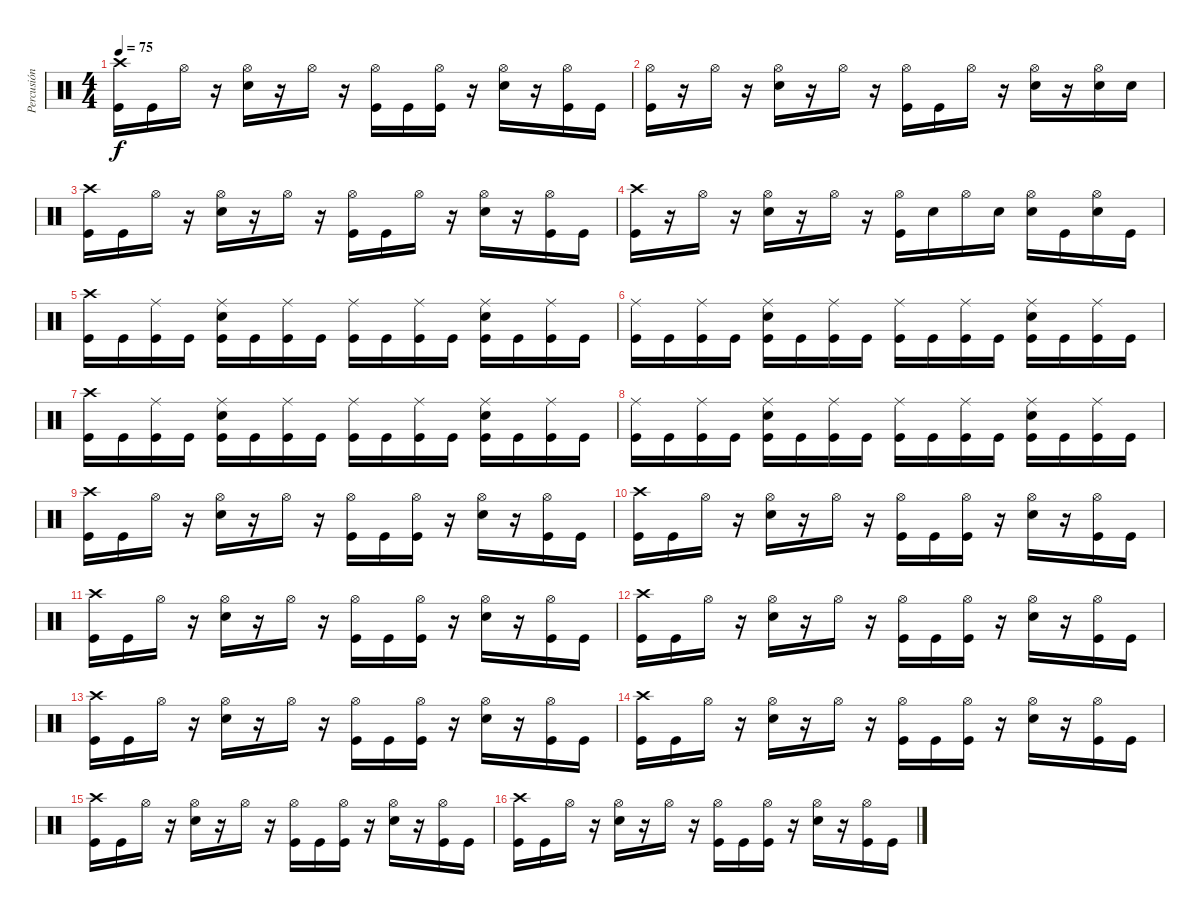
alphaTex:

\track ("Percusión" "Percusión") {instrument percussion}
\staff {score}
\articulation defaults
\ts (4 4)
\tempo 75
\clef neutral
\ks c
("Kick (hit)" "Crash high (hit)").16{dy f} "Kick (hit)".16 "Hi-Hat (open)".16 r.16 ("Snare (hit) 2" "Hi-Hat (open)").16 r.16 "Hi-Hat (open)".16 r.16 ("Kick (hit)" "Hi-Hat (open)").16 "Kick (hit)".16 ("Kick (hit)" "Hi-Hat (open)").16 r.16 ("Snare (hit) 2" "Hi-Hat (open)").16 r.16 ("Kick (hit)" "Hi-Hat (open)").16 "Kick (hit)".16 |
("Kick (hit)" "Hi-Hat (open)").16 r.16 "Hi-Hat (open)".16 r.16 ("Snare (hit) 2" "Hi-Hat (open)").16 r.16 "Hi-Hat (open)".16 r.16 ("Kick (hit)" "Hi-Hat (open)").16 "Kick (hit)".16 "Hi-Hat (open)".16 r.16 ("Snare (hit) 2" "Hi-Hat (open)").16 r.16 ("Snare (hit) 2" "Hi-Hat (open)").16 "Snare (hit) 2".16 |
("Kick (hit)" "Crash high (hit)").16 "Kick (hit)".16 "Hi-Hat (open)".16 r.16 ("Snare (hit) 2" "Hi-Hat (open)").16 r.16 "Hi-Hat (open)".16 r.16 ("Kick (hit)" "Hi-Hat (open)").16 "Kick (hit)".16 "Hi-Hat (open)".16 r.16 ("Snare (hit) 2" "Hi-Hat (open)").16 r.16 ("Kick (hit)" "Hi-Hat (open)").16 "Kick (hit)".16 |
("Kick (hit)" "Crash high (hit)").16 r.16 "Hi-Hat (open)".16 r.16 ("Snare (hit) 2" "Hi-Hat (open)").16 r.16 "Hi-Hat (open)".16 r.16 ("Kick (hit)" "Hi-Hat (open)").16 "Snare (hit) 2".16 "Hi-Hat (open)".16 "Snare (hit) 2".16 ("Snare (hit) 2" "Hi-Hat (open)").16 "Kick (hit)".16 ("Snare (hit) 2" "Hi-Hat (open)").16 "Kick (hit)".16 |
("Kick (hit)" "Crash high (hit)").16 "Kick (hit)".16 ("Kick (hit)" "Ride (middle)").16 "Kick (hit)".16 ("Kick (hit)" "Snare (hit) 2" "Ride (middle)").16 "Kick (hit)".16 ("Kick (hit)" "Ride (middle)").16 "Kick (hit)".16 ("Kick (hit)" "Ride (middle)").16 "Kick (hit)".16 ("Kick (hit)" "Ride (middle)").16 "Kick (hit)".16 ("Kick (hit)" "Snare (hit) 2" "Ride (middle)").16 "Kick (hit)".16 ("Kick (hit)" "Ride (middle)").16 "Kick (hit)".16 |
("Kick (hit)" "Ride (middle)").16 "Kick (hit)".16 ("Kick (hit)" "Ride (middle)").16 "Kick (hit)".16 ("Kick (hit)" "Snare (hit) 2" "Ride (middle)").16 "Kick (hit)".16 ("Kick (hit)" "Ride (middle)").16 "Kick (hit)".16 ("Kick (hit)" "Ride (middle)").16 "Kick (hit)".16 ("Kick (hit)" "Ride (middle)").16 "Kick (hit)".16 ("Kick (hit)" "Snare (hit) 2" "Ride (middle)").16 "Kick (hit)".16 ("Kick (hit)" "Ride (middle)").16 "Kick (hit)".16 |
("Kick (hit)" "Crash high (hit)").16 "Kick (hit)".16 ("Kick (hit)" "Ride (middle)").16 "Kick (hit)".16 ("Kick (hit)" "Snare (hit) 2" "Ride (middle)").16 "Kick (hit)".16 ("Kick (hit)" "Ride (middle)").16 "Kick (hit)".16 ("Kick (hit)" "Ride (middle)").16 "Kick (hit)".16 ("Kick (hit)" "Ride (middle)").16 "Kick (hit)".16 ("Kick (hit)" "Snare (hit) 2" "Ride (middle)").16 "Kick (hit)".16 ("Kick (hit)" "Ride (middle)").16 "Kick (hit)".16 |
("Kick (hit)" "Ride (middle)").16 "Kick (hit)".16 ("Kick (hit)" "Ride (middle)").16 "Kick (hit)".16 ("Kick (hit)" "Snare (hit) 2" "Ride (middle)").16 "Kick (hit)".16 ("Kick (hit)" "Ride (middle)").16 "Kick (hit)".16 ("Kick (hit)" "Ride (middle)").16 "Kick (hit)".16 ("Kick (hit)" "Ride (middle)").16 "Kick (hit)".16 ("Kick (hit)" "Snare (hit) 2" "Ride (middle)").16 "Kick (hit)".16 ("Kick (hit)" "Ride (middle)").16 "Kick (hit)".16 |
("Kick (hit)" "Crash high (hit)").16 "Kick (hit)".16 "Hi-Hat (open)".16 r.16 ("Snare (hit) 2" "Hi-Hat (open)").16 r.16 "Hi-Hat (open)".16 r.16 ("Kick (hit)" "Hi-Hat (open)").16 "Kick (hit)".16 ("Kick (hit)" "Hi-Hat (open)").16 r.16 ("Snare (hit) 2" "Hi-Hat (open)").16 r.16 ("Kick (hit)" "Hi-Hat (open)").16 "Kick (hit)".16 |
("Kick (hit)" "Crash high (hit)").16 "Kick (hit)".16 "Hi-Hat (open)".16 r.16 ("Snare (hit) 2" "Hi-Hat (open)").16 r.16 "Hi-Hat (open)".16 r.16 ("Kick (hit)" "Hi-Hat (open)").16 "Kick (hit)".16 ("Kick (hit)" "Hi-Hat (open)").16 r.16 ("Snare (hit) 2" "Hi-Hat (open)").16 r.16 ("Kick (hit)" "Hi-Hat (open)").16 "Kick (hit)".16 |
("Kick (hit)" "Crash high (hit)").16 "Kick (hit)".16 "Hi-Hat (open)".16 r.16 ("Snare (hit) 2" "Hi-Hat (open)").16 r.16 "Hi-Hat (open)".16 r.16 ("Kick (hit)" "Hi-Hat (open)").16 "Kick (hit)".16 ("Kick (hit)" "Hi-Hat (open)").16 r.16 ("Snare (hit) 2" "Hi-Hat (open)").16 r.16 ("Kick (hit)" "Hi-Hat (open)").16 "Kick (hit)".16 |
("Kick (hit)" "Crash high (hit)").16 "Kick (hit)".16 "Hi-Hat (open)".16 r.16 ("Snare (hit) 2" "Hi-Hat (open)").16 r.16 "Hi-Hat (open)".16 r.16 ("Kick (hit)" "Hi-Hat (open)").16 "Kick (hit)".16 ("Kick (hit)" "Hi-Hat (open)").16 r.16 ("Snare (hit) 2" "Hi-Hat (open)").16 r.16 ("Kick (hit)" "Hi-Hat (open)").16 "Kick (hit)".16 |
("Kick (hit)" "Crash high (hit)").16 "Kick (hit)".16 "Hi-Hat (open)".16 r.16 ("Snare (hit) 2" "Hi-Hat (open)").16 r.16 "Hi-Hat (open)".16 r.16 ("Kick (hit)" "Hi-Hat (open)").16 "Kick (hit)".16 ("Kick (hit)" "Hi-Hat (open)").16 r.16 ("Snare (hit) 2" "Hi-Hat (open)").16 r.16 ("Kick (hit)" "Hi-Hat (open)").16 "Kick (hit)".16 |
("Kick (hit)" "Crash high (hit)").16 "Kick (hit)".16 "Hi-Hat (open)".16 r.16 ("Snare (hit) 2" "Hi-Hat (open)").16 r.16 "Hi-Hat (open)".16 r.16 ("Kick (hit)" "Hi-Hat (open)").16 "Kick (hit)".16 ("Kick (hit)" "Hi-Hat (open)").16 r.16 ("Snare (hit) 2" "Hi-Hat (open)").16 r.16 ("Kick (hit)" "Hi-Hat (open)").16 "Kick (hit)".16 |
("Kick (hit)" "Crash high (hit)").16 "Kick (hit)".16 "Hi-Hat (open)".16 r.16 ("Snare (hit) 2" "Hi-Hat (open)").16 r.16 "Hi-Hat (open)".16 r.16 ("Kick (hit)" "Hi-Hat (open)").16 "Kick (hit)".16 ("Kick (hit)" "Hi-Hat (open)").16 r.16 ("Snare (hit) 2" "Hi-Hat (open)").16 r.16 ("Kick (hit)" "Hi-Hat (open)").16 "Kick (hit)".16 |
("Kick (hit)" "Crash high (hit)").16 "Kick (hit)".16 "Hi-Hat (open)".16 r.16 ("Snare (hit) 2" "Hi-Hat (open)").16 r.16 "Hi-Hat (open)".16 r.16 ("Kick (hit)" "Hi-Hat (open)").16 "Kick (hit)".16 ("Kick (hit)" "Hi-Hat (open)").16 r.16 ("Snare (hit) 2" "Hi-Hat (open)").16 r.16 ("Kick (hit)" "Hi-Hat (open)").16 "Kick (hit)".16
